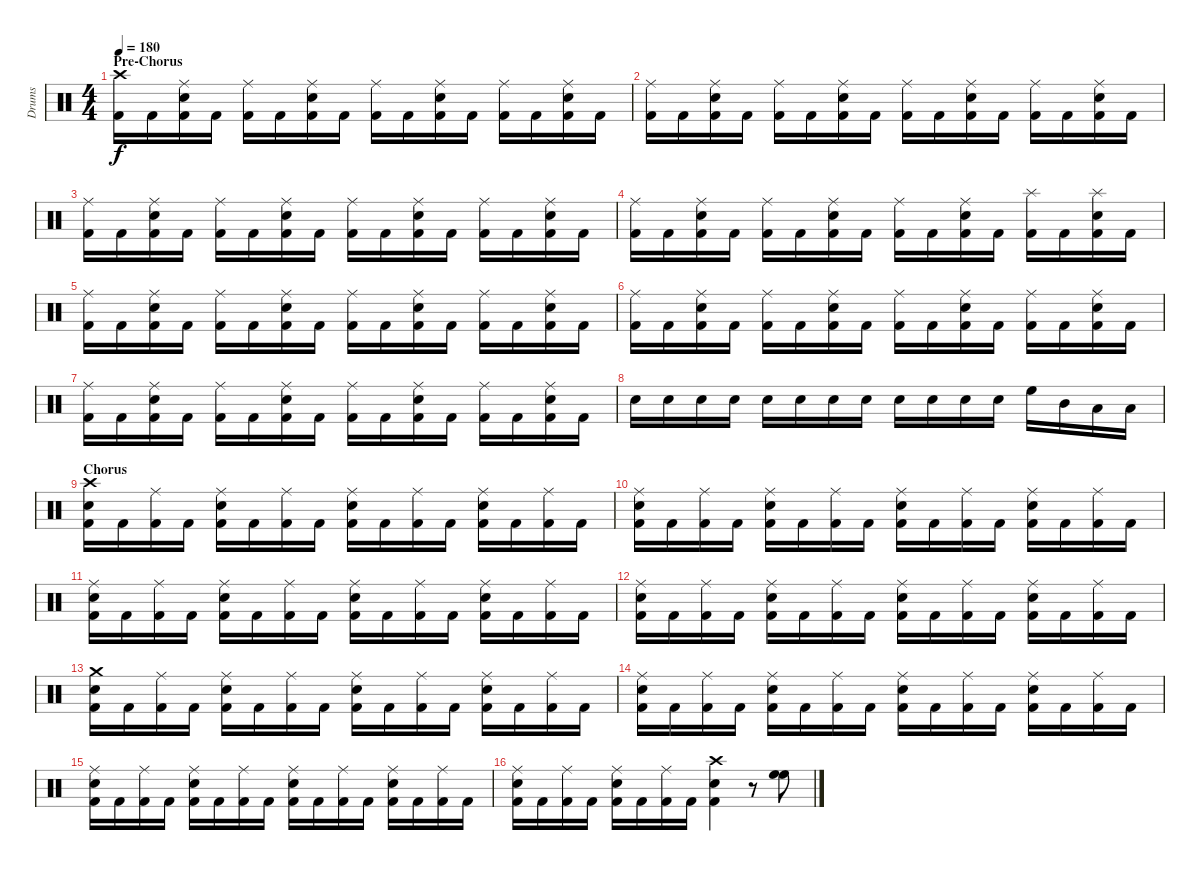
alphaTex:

\track ("Drums" "Drums") {instrument percussion}
\staff {score}
\articulation defaults
\ts (4 4)
\section ("" "Pre-Chorus")
\tempo 180
\clef neutral
\ks c
("Crash high (hit)" "Kick (hit) 2").16{dy f} "Kick (hit) 2".16 ("Ride (middle)" "Snare (hit) 2" "Kick (hit) 2").16 "Kick (hit) 2".16 ("Ride (middle)" "Kick (hit) 2").16 "Kick (hit) 2".16 ("Ride (middle)" "Snare (hit) 2" "Kick (hit) 2").16 "Kick (hit) 2".16 ("Ride (middle)" "Kick (hit) 2").16 "Kick (hit) 2".16 ("Ride (middle)" "Snare (hit) 2" "Kick (hit) 2").16 "Kick (hit) 2".16 ("Ride (middle)" "Kick (hit) 2").16 "Kick (hit) 2".16 ("Ride (middle)" "Snare (hit) 2" "Kick (hit) 2").16 "Kick (hit) 2".16 |
("Ride (middle)" "Kick (hit) 2").16 "Kick (hit) 2".16 ("Ride (middle)" "Snare (hit) 2" "Kick (hit) 2").16 "Kick (hit) 2".16 ("Ride (middle)" "Kick (hit) 2").16 "Kick (hit) 2".16 ("Ride (middle)" "Snare (hit) 2" "Kick (hit) 2").16 "Kick (hit) 2".16 ("Ride (middle)" "Kick (hit) 2").16 "Kick (hit) 2".16 ("Ride (middle)" "Snare (hit) 2" "Kick (hit) 2").16 "Kick (hit) 2".16 ("Ride (middle)" "Kick (hit) 2").16 "Kick (hit) 2".16 ("Ride (middle)" "Snare (hit) 2" "Kick (hit) 2").16 "Kick (hit) 2".16 |
("Ride (middle)" "Kick (hit) 2").16 "Kick (hit) 2".16 ("Ride (middle)" "Snare (hit) 2" "Kick (hit) 2").16 "Kick (hit) 2".16 ("Ride (middle)" "Kick (hit) 2").16 "Kick (hit) 2".16 ("Ride (middle)" "Snare (hit) 2" "Kick (hit) 2").16 "Kick (hit) 2".16 ("Ride (middle)" "Kick (hit) 2").16 "Kick (hit) 2".16 ("Ride (middle)" "Snare (hit) 2" "Kick (hit) 2").16 "Kick (hit) 2".16 ("Ride (middle)" "Kick (hit) 2").16 "Kick (hit) 2".16 ("Ride (middle)" "Snare (hit) 2" "Kick (hit) 2").16 "Kick (hit) 2".16 |
("Ride (middle)" "Kick (hit) 2").16 "Kick (hit) 2".16 ("Ride (middle)" "Snare (hit) 2" "Kick (hit) 2").16 "Kick (hit) 2".16 ("Ride (middle)" "Kick (hit) 2").16 "Kick (hit) 2".16 ("Ride (middle)" "Snare (hit) 2" "Kick (hit) 2").16 "Kick (hit) 2".16 ("Ride (middle)" "Kick (hit) 2").16 "Kick (hit) 2".16 ("Ride (middle)" "Snare (hit) 2" "Kick (hit) 2").16 "Kick (hit) 2".16 ("Splash (hit)" "Kick (hit) 2").16 "Kick (hit) 2".16 ("Splash (hit)" "Snare (hit) 2" "Kick (hit) 2").16 "Kick (hit) 2".16 |
("Ride (middle)" "Kick (hit) 2").16 "Kick (hit) 2".16 ("Ride (middle)" "Snare (hit) 2" "Kick (hit) 2").16 "Kick (hit) 2".16 ("Ride (middle)" "Kick (hit) 2").16 "Kick (hit) 2".16 ("Ride (middle)" "Snare (hit) 2" "Kick (hit) 2").16 "Kick (hit) 2".16 ("Ride (middle)" "Kick (hit) 2").16 "Kick (hit) 2".16 ("Ride (middle)" "Snare (hit) 2" "Kick (hit) 2").16 "Kick (hit) 2".16 ("Ride (middle)" "Kick (hit) 2").16 "Kick (hit) 2".16 ("Ride (middle)" "Snare (hit) 2" "Kick (hit) 2").16 "Kick (hit) 2".16 |
("Ride (middle)" "Kick (hit) 2").16 "Kick (hit) 2".16 ("Ride (middle)" "Snare (hit) 2" "Kick (hit) 2").16 "Kick (hit) 2".16 ("Ride (middle)" "Kick (hit) 2").16 "Kick (hit) 2".16 ("Ride (middle)" "Snare (hit) 2" "Kick (hit) 2").16 "Kick (hit) 2".16 ("Ride (middle)" "Kick (hit) 2").16 "Kick (hit) 2".16 ("Ride (middle)" "Snare (hit) 2" "Kick (hit) 2").16 "Kick (hit) 2".16 ("Ride (middle)" "Kick (hit) 2").16 "Kick (hit) 2".16 ("Ride (middle)" "Snare (hit) 2" "Kick (hit) 2").16 "Kick (hit) 2".16 |
("Ride (middle)" "Kick (hit) 2").16 "Kick (hit) 2".16 ("Ride (middle)" "Snare (hit) 2" "Kick (hit) 2").16 "Kick (hit) 2".16 ("Ride (middle)" "Kick (hit) 2").16 "Kick (hit) 2".16 ("Ride (middle)" "Snare (hit) 2" "Kick (hit) 2").16 "Kick (hit) 2".16 ("Ride (middle)" "Kick (hit) 2").16 "Kick (hit) 2".16 ("Ride (middle)" "Snare (hit) 2" "Kick (hit) 2").16 "Kick (hit) 2".16 ("Ride (middle)" "Kick (hit) 2").16 "Kick (hit) 2".16 ("Ride (middle)" "Snare (hit) 2" "Kick (hit) 2").16 "Kick (hit) 2".16 |
"Snare (hit) 2".16 "Snare (hit) 2".16 "Snare (hit) 2".16 "Snare (hit) 2".16 "Snare (hit) 2".16 "Snare (hit) 2".16 "Snare (hit) 2".16 "Snare (hit) 2".16 "Snare (hit) 2".16 "Snare (hit) 2".16 "Snare (hit) 2".16 "Snare (hit) 2".16 "High Floor Tom (hit)".16 "Mid Tom (hit)".16 "Low Tom (hit)".16 "Low Floor Tom (hit)".16 |
\section ("" "Chorus")
("Crash high (hit)" "Snare (hit) 2" "Kick (hit) 2").16 "Kick (hit) 2".16 ("Ride (middle)" "Kick (hit) 2").16 "Kick (hit) 2".16 ("Ride (middle)" "Snare (hit) 2" "Kick (hit) 2").16 "Kick (hit) 2".16 ("Ride (middle)" "Kick (hit) 2").16 "Kick (hit) 2".16 ("Ride (middle)" "Snare (hit) 2" "Kick (hit) 2").16 "Kick (hit) 2".16 ("Ride (middle)" "Kick (hit) 2").16 "Kick (hit) 2".16 ("Ride (middle)" "Snare (hit) 2" "Kick (hit) 2").16 "Kick (hit) 2".16 ("Ride (middle)" "Kick (hit) 2").16 "Kick (hit) 2".16 |
("Ride (middle)" "Snare (hit) 2" "Kick (hit) 2").16 "Kick (hit) 2".16 ("Ride (middle)" "Kick (hit) 2").16 "Kick (hit) 2".16 ("Ride (middle)" "Snare (hit) 2" "Kick (hit) 2").16 "Kick (hit) 2".16 ("Ride (middle)" "Kick (hit) 2").16 "Kick (hit) 2".16 ("Ride (middle)" "Snare (hit) 2" "Kick (hit) 2").16 "Kick (hit) 2".16 ("Ride (middle)" "Kick (hit) 2").16 "Kick (hit) 2".16 ("Ride (middle)" "Snare (hit) 2" "Kick (hit) 2").16 "Kick (hit) 2".16 ("Ride (middle)" "Kick (hit) 2").16 "Kick (hit) 2".16 |
("Ride (middle)" "Snare (hit) 2" "Kick (hit) 2").16 "Kick (hit) 2".16 ("Ride (middle)" "Kick (hit) 2").16 "Kick (hit) 2".16 ("Ride (middle)" "Snare (hit) 2" "Kick (hit) 2").16 "Kick (hit) 2".16 ("Ride (middle)" "Kick (hit) 2").16 "Kick (hit) 2".16 ("Ride (middle)" "Snare (hit) 2" "Kick (hit) 2").16 "Kick (hit) 2".16 ("Ride (middle)" "Kick (hit) 2").16 "Kick (hit) 2".16 ("Ride (middle)" "Snare (hit) 2" "Kick (hit) 2").16 "Kick (hit) 2".16 ("Ride (middle)" "Kick (hit) 2").16 "Kick (hit) 2".16 |
("Ride (middle)" "Snare (hit) 2" "Kick (hit) 2").16 "Kick (hit) 2".16 ("Ride (middle)" "Kick (hit) 2").16 "Kick (hit) 2".16 ("Ride (middle)" "Snare (hit) 2" "Kick (hit) 2").16 "Kick (hit) 2".16 ("Ride (middle)" "Kick (hit) 2").16 "Kick (hit) 2".16 ("Ride (middle)" "Snare (hit) 2" "Kick (hit) 2").16 "Kick (hit) 2".16 ("Ride (middle)" "Kick (hit) 2").16 "Kick (hit) 2".16 ("Ride (middle)" "Snare (hit) 2" "Kick (hit) 2").16 "Kick (hit) 2".16 ("Ride (middle)" "Kick (hit) 2").16 "Kick (hit) 2".16 |
("Crash medium (hit)" "Snare (hit) 2" "Kick (hit) 2").16 "Kick (hit) 2".16 ("Ride (middle)" "Kick (hit) 2").16 "Kick (hit) 2".16 ("Ride (middle)" "Snare (hit) 2" "Kick (hit) 2").16 "Kick (hit) 2".16 ("Ride (middle)" "Kick (hit) 2").16 "Kick (hit) 2".16 ("Ride (middle)" "Snare (hit) 2" "Kick (hit) 2").16 "Kick (hit) 2".16 ("Ride (middle)" "Kick (hit) 2").16 "Kick (hit) 2".16 ("Ride (middle)" "Snare (hit) 2" "Kick (hit) 2").16 "Kick (hit) 2".16 ("Ride (middle)" "Kick (hit) 2").16 "Kick (hit) 2".16 |
("Ride (middle)" "Snare (hit) 2" "Kick (hit) 2").16 "Kick (hit) 2".16 ("Ride (middle)" "Kick (hit) 2").16 "Kick (hit) 2".16 ("Ride (middle)" "Snare (hit) 2" "Kick (hit) 2").16 "Kick (hit) 2".16 ("Ride (middle)" "Kick (hit) 2").16 "Kick (hit) 2".16 ("Ride (middle)" "Snare (hit) 2" "Kick (hit) 2").16 "Kick (hit) 2".16 ("Ride (middle)" "Kick (hit) 2").16 "Kick (hit) 2".16 ("Ride (middle)" "Snare (hit) 2" "Kick (hit) 2").16 "Kick (hit) 2".16 ("Ride (middle)" "Kick (hit) 2").16 "Kick (hit) 2".16 |
("Ride (middle)" "Snare (hit) 2" "Kick (hit) 2").16 "Kick (hit) 2".16 ("Ride (middle)" "Kick (hit) 2").16 "Kick (hit) 2".16 ("Ride (middle)" "Snare (hit) 2" "Kick (hit) 2").16 "Kick (hit) 2".16 ("Ride (middle)" "Kick (hit) 2").16 "Kick (hit) 2".16 ("Ride (middle)" "Snare (hit) 2" "Kick (hit) 2").16 "Kick (hit) 2".16 ("Ride (middle)" "Kick (hit) 2").16 "Kick (hit) 2".16 ("Ride (middle)" "Snare (hit) 2" "Kick (hit) 2").16 "Kick (hit) 2".16 ("Ride (middle)" "Kick (hit) 2").16 "Kick (hit) 2".16 |
("Ride (middle)" "Snare (hit) 2" "Kick (hit) 2").16 "Kick (hit) 2".16 ("Ride (middle)" "Kick (hit) 2").16 "Kick (hit) 2".16 ("Ride (middle)" "Snare (hit) 2" "Kick (hit) 2").16 "Kick (hit) 2".16 ("Ride (middle)" "Kick (hit) 2").16 "Kick (hit) 2".16 ("Crash high (hit)" "Snare (hit) 2" "Kick (hit) 2").4 r.8 ("High Floor Tom (hit)" "High Floor Tom (hit)").8
